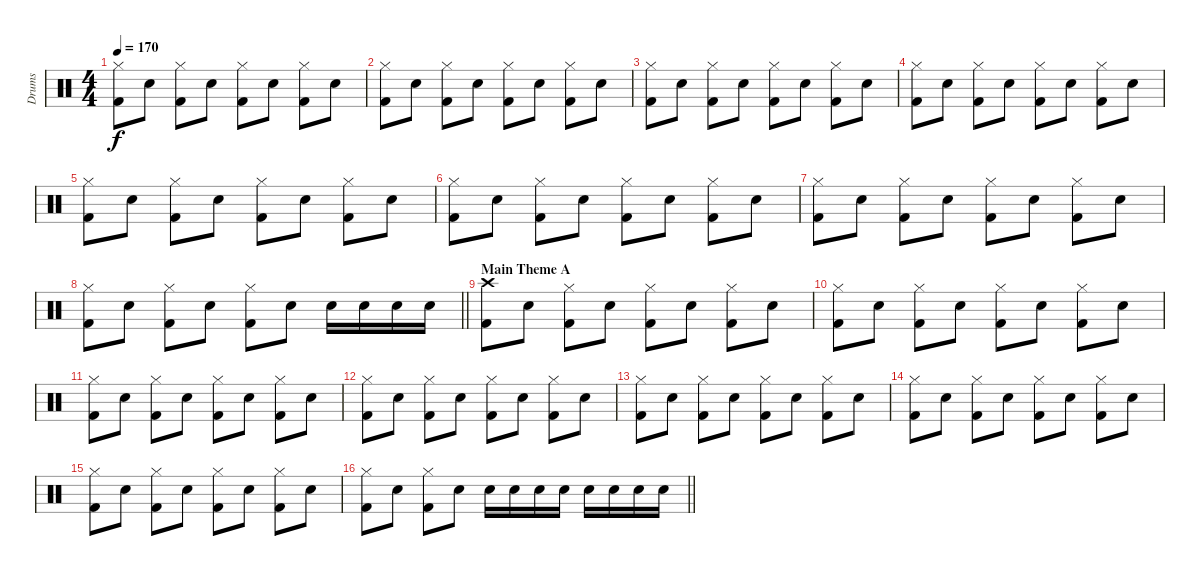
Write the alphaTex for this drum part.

\track ("Drums" "Drums") {instrument percussion}
\staff {score}
\articulation defaults
\ts (4 4)
\tempo 170
\clef neutral
\ks c
("Hi-Hat (closed)" "Kick (hit) 2").8{dy f} "Electric Snare (hit)".8 ("Hi-Hat (closed)" "Kick (hit) 2").8 "Electric Snare (hit)".8 ("Hi-Hat (closed)" "Kick (hit) 2").8 "Electric Snare (hit)".8 ("Hi-Hat (closed)" "Kick (hit) 2").8 "Electric Snare (hit)".8 |
("Hi-Hat (closed)" "Kick (hit) 2").8 "Electric Snare (hit)".8 ("Hi-Hat (closed)" "Kick (hit) 2").8 "Electric Snare (hit)".8 ("Hi-Hat (closed)" "Kick (hit) 2").8 "Electric Snare (hit)".8 ("Hi-Hat (closed)" "Kick (hit) 2").8 "Electric Snare (hit)".8 |
("Hi-Hat (closed)" "Kick (hit) 2").8 "Electric Snare (hit)".8 ("Hi-Hat (closed)" "Kick (hit) 2").8 "Electric Snare (hit)".8 ("Hi-Hat (closed)" "Kick (hit) 2").8 "Electric Snare (hit)".8 ("Hi-Hat (closed)" "Kick (hit) 2").8 "Electric Snare (hit)".8 |
("Hi-Hat (closed)" "Kick (hit) 2").8 "Electric Snare (hit)".8 ("Hi-Hat (closed)" "Kick (hit) 2").8 "Electric Snare (hit)".8 ("Hi-Hat (closed)" "Kick (hit) 2").8 "Electric Snare (hit)".8 ("Hi-Hat (closed)" "Kick (hit) 2").8 "Electric Snare (hit)".8 |
("Hi-Hat (closed)" "Kick (hit) 2").8 "Electric Snare (hit)".8 ("Hi-Hat (closed)" "Kick (hit) 2").8 "Electric Snare (hit)".8 ("Hi-Hat (closed)" "Kick (hit) 2").8 "Electric Snare (hit)".8 ("Hi-Hat (closed)" "Kick (hit) 2").8 "Electric Snare (hit)".8 |
("Hi-Hat (closed)" "Kick (hit) 2").8 "Electric Snare (hit)".8 ("Hi-Hat (closed)" "Kick (hit) 2").8 "Electric Snare (hit)".8 ("Hi-Hat (closed)" "Kick (hit) 2").8 "Electric Snare (hit)".8 ("Hi-Hat (closed)" "Kick (hit) 2").8 "Electric Snare (hit)".8 |
("Hi-Hat (closed)" "Kick (hit) 2").8 "Electric Snare (hit)".8 ("Hi-Hat (closed)" "Kick (hit) 2").8 "Electric Snare (hit)".8 ("Hi-Hat (closed)" "Kick (hit) 2").8 "Electric Snare (hit)".8 ("Hi-Hat (closed)" "Kick (hit) 2").8 "Electric Snare (hit)".8 |
\barLineRight lightlight
("Hi-Hat (closed)" "Kick (hit) 2").8 "Electric Snare (hit)".8 ("Hi-Hat (closed)" "Kick (hit) 2").8 "Electric Snare (hit)".8 ("Hi-Hat (closed)" "Kick (hit) 2").8 "Electric Snare (hit)".8 "Electric Snare (hit)".16 "Electric Snare (hit)".16 "Electric Snare (hit)".16 "Electric Snare (hit)".16 |
\section ("" "Main Theme A")
("Crash high (hit)" "Kick (hit) 2").8{volume 11} "Electric Snare (hit)".8 ("Hi-Hat (closed)" "Kick (hit) 2").8 "Electric Snare (hit)".8 ("Hi-Hat (closed)" "Kick (hit) 2").8 "Electric Snare (hit)".8 ("Hi-Hat (closed)" "Kick (hit) 2").8 "Electric Snare (hit)".8 |
("Hi-Hat (closed)" "Kick (hit) 2").8 "Electric Snare (hit)".8 ("Hi-Hat (closed)" "Kick (hit) 2").8 "Electric Snare (hit)".8 ("Hi-Hat (closed)" "Kick (hit) 2").8 "Electric Snare (hit)".8 ("Hi-Hat (closed)" "Kick (hit) 2").8 "Electric Snare (hit)".8 |
("Hi-Hat (closed)" "Kick (hit) 2").8 "Electric Snare (hit)".8 ("Hi-Hat (closed)" "Kick (hit) 2").8 "Electric Snare (hit)".8 ("Hi-Hat (closed)" "Kick (hit) 2").8 "Electric Snare (hit)".8 ("Hi-Hat (closed)" "Kick (hit) 2").8 "Electric Snare (hit)".8 |
("Hi-Hat (closed)" "Kick (hit) 2").8 "Electric Snare (hit)".8 ("Hi-Hat (closed)" "Kick (hit) 2").8 "Electric Snare (hit)".8 ("Hi-Hat (closed)" "Kick (hit) 2").8 "Electric Snare (hit)".8 ("Hi-Hat (closed)" "Kick (hit) 2").8 "Electric Snare (hit)".8 |
("Hi-Hat (closed)" "Kick (hit) 2").8 "Electric Snare (hit)".8 ("Hi-Hat (closed)" "Kick (hit) 2").8 "Electric Snare (hit)".8 ("Hi-Hat (closed)" "Kick (hit) 2").8 "Electric Snare (hit)".8 ("Hi-Hat (closed)" "Kick (hit) 2").8 "Electric Snare (hit)".8 |
("Hi-Hat (closed)" "Kick (hit) 2").8 "Electric Snare (hit)".8 ("Hi-Hat (closed)" "Kick (hit) 2").8 "Electric Snare (hit)".8 ("Hi-Hat (closed)" "Kick (hit) 2").8 "Electric Snare (hit)".8 ("Hi-Hat (closed)" "Kick (hit) 2").8 "Electric Snare (hit)".8 |
("Hi-Hat (closed)" "Kick (hit) 2").8 "Electric Snare (hit)".8 ("Hi-Hat (closed)" "Kick (hit) 2").8 "Electric Snare (hit)".8 ("Hi-Hat (closed)" "Kick (hit) 2").8 "Electric Snare (hit)".8 ("Hi-Hat (closed)" "Kick (hit) 2").8 "Electric Snare (hit)".8 |
\barLineRight lightlight
("Hi-Hat (closed)" "Kick (hit) 2").8 "Electric Snare (hit)".8 ("Hi-Hat (closed)" "Kick (hit) 2").8 "Electric Snare (hit)".8 "Electric Snare (hit)".16 "Electric Snare (hit)".16 "Electric Snare (hit)".16 "Electric Snare (hit)".16 "Electric Snare (hit)".16 "Electric Snare (hit)".16 "Electric Snare (hit)".16 "Electric Snare (hit)".16
